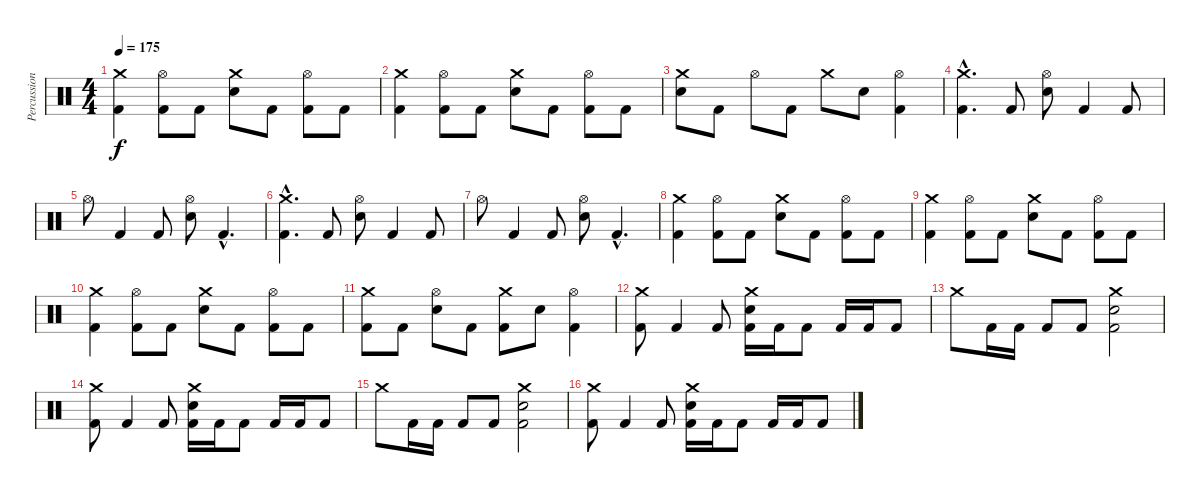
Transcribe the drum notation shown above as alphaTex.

\track ("Percussion" "Percussion") {instrument percussion}
\staff {score}
\articulation defaults
\ts (4 4)
\tempo 175
\clef neutral
\ks c
("Crash medium (hit)" "Kick (hit) 2").4{dy f} ("Hi-Hat (open)" "Kick (hit) 2").8 "Kick (hit) 2".8 ("Crash medium (hit)" "Electric Snare (hit)").8 "Kick (hit) 2".8 ("Hi-Hat (open)" "Kick (hit) 2").8 "Kick (hit) 2".8 |
("Crash medium (hit)" "Kick (hit) 2").4 ("Hi-Hat (open)" "Kick (hit) 2").8 "Kick (hit) 2".8 ("Crash medium (hit)" "Electric Snare (hit)").8 "Kick (hit) 2".8 ("Hi-Hat (open)" "Kick (hit) 2").8 "Kick (hit) 2".8 |
("Crash medium (hit)" "Electric Snare (hit)").8 "Kick (hit) 2".8 "Hi-Hat (open)".8 "Kick (hit) 2".8 "Crash medium (hit)".8 "Electric Snare (hit)".8 ("Hi-Hat (open)" "Kick (hit) 2").4 |
("Crash medium (hit)"{hac} "Kick (hit) 2"{hac}).4{d} "Kick (hit) 2".8 ("Hi-Hat (open)" "Electric Snare (hit)").8 "Kick (hit) 2".4 "Kick (hit) 2".8 |
"Hi-Hat (open)".8 "Kick (hit) 2".4 "Kick (hit) 2".8 ("Hi-Hat (open)" "Electric Snare (hit)").8 "Kick (hit) 2"{hac}.4{d} |
("Crash medium (hit)"{hac} "Kick (hit) 2"{hac}).4{d} "Kick (hit) 2".8 ("Hi-Hat (open)" "Electric Snare (hit)").8 "Kick (hit) 2".4 "Kick (hit) 2".8 |
"Hi-Hat (open)".8 "Kick (hit) 2".4 "Kick (hit) 2".8 ("Hi-Hat (open)" "Electric Snare (hit)").8 "Kick (hit) 2"{hac}.4{d} |
("Crash medium (hit)" "Kick (hit) 2").4 ("Hi-Hat (open)" "Kick (hit) 2").8 "Kick (hit) 2".8 ("Crash medium (hit)" "Electric Snare (hit)").8 "Kick (hit) 2".8 ("Hi-Hat (open)" "Kick (hit) 2").8 "Kick (hit) 2".8 |
("Crash medium (hit)" "Kick (hit) 2").4 ("Hi-Hat (open)" "Kick (hit) 2").8 "Kick (hit) 2".8 ("Crash medium (hit)" "Electric Snare (hit)").8 "Kick (hit) 2".8 ("Hi-Hat (open)" "Kick (hit) 2").8 "Kick (hit) 2".8 |
("Crash medium (hit)" "Kick (hit) 2").4 ("Hi-Hat (open)" "Kick (hit) 2").8 "Kick (hit) 2".8 ("Crash medium (hit)" "Electric Snare (hit)").8 "Kick (hit) 2".8 ("Hi-Hat (open)" "Kick (hit) 2").8 "Kick (hit) 2".8 |
("Crash medium (hit)" "Kick (hit) 2").8 "Kick (hit) 2".8 ("Hi-Hat (open)" "Electric Snare (hit)").8 "Kick (hit) 2".8 ("Crash medium (hit)" "Kick (hit) 2").8 "Electric Snare (hit)".8 ("Hi-Hat (open)" "Kick (hit) 2").4 |
("Crash medium (hit)" "Kick (hit) 2").8 "Kick (hit) 2".4 "Kick (hit) 2".8 ("Crash medium (hit)" "Electric Snare (hit)" "Kick (hit) 2").16 "Kick (hit) 2".16 "Kick (hit) 2".8 "Kick (hit) 2".16 "Kick (hit) 2".16 "Kick (hit) 2".8 |
"Crash medium (hit)".8 "Kick (hit) 2".16 "Kick (hit) 2".16 "Kick (hit) 2".8 "Kick (hit) 2".8 ("Crash medium (hit)" "Electric Snare (hit)" "Kick (hit) 2").2 |
("Crash medium (hit)" "Kick (hit) 2").8 "Kick (hit) 2".4 "Kick (hit) 2".8 ("Crash medium (hit)" "Electric Snare (hit)" "Kick (hit) 2").16 "Kick (hit) 2".16 "Kick (hit) 2".8 "Kick (hit) 2".16 "Kick (hit) 2".16 "Kick (hit) 2".8 |
"Crash medium (hit)".8 "Kick (hit) 2".16 "Kick (hit) 2".16 "Kick (hit) 2".8 "Kick (hit) 2".8 ("Crash medium (hit)" "Electric Snare (hit)" "Kick (hit) 2").2 |
("Crash medium (hit)" "Kick (hit) 2").8 "Kick (hit) 2".4 "Kick (hit) 2".8 ("Crash medium (hit)" "Electric Snare (hit)" "Kick (hit) 2").16 "Kick (hit) 2".16 "Kick (hit) 2".8 "Kick (hit) 2".16 "Kick (hit) 2".16 "Kick (hit) 2".8
